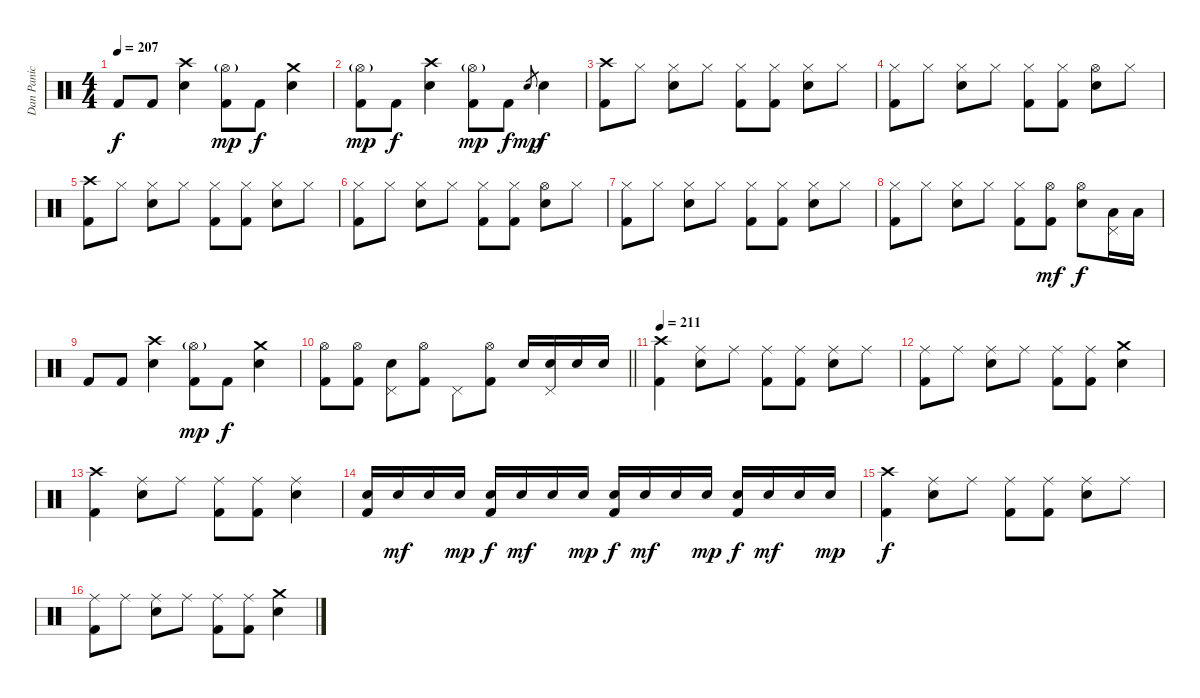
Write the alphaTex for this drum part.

\track ("Dan Panic" "Dan Panic") {instrument percussion}
\staff {score}
\articulation defaults
\ts (4 4)
\tempo 207
\clef neutral
\ks c "Kick (hit) 2".8{dy f} "Kick (hit) 2".8
("Crash high (hit)" "Electric Snare (hit)").4 ("Hi-Hat (open)"{g} "Kick (hit) 2").8{dy mp} "Kick (hit) 2".8{dy f} ("Crash medium (hit)" "Electric Snare (hit)").4 |
("Hi-Hat (open)"{g} "Kick (hit) 2").8{dy mp} "Kick (hit) 2".8{dy f} ("Crash high (hit)" "Electric Snare (hit)").4 ("Hi-Hat (open)"{g} "Kick (hit) 2").8{dy mp} "Kick (hit) 2".8{dy f} "Electric Snare (hit)".8{gr dy mp} "Electric Snare (hit)".4{dy f} |
("Crash high (hit)" "Kick (hit) 2").8 "Hi-Hat (closed)".8 ("Hi-Hat (closed)" "Electric Snare (hit)").8 "Hi-Hat (closed)".8 ("Hi-Hat (closed)" "Kick (hit) 2").8 ("Hi-Hat (closed)" "Kick (hit) 2").8 ("Hi-Hat (closed)" "Electric Snare (hit)").8 "Hi-Hat (closed)".8 |
("Hi-Hat (closed)" "Kick (hit) 2").8 "Hi-Hat (closed)".8 ("Hi-Hat (closed)" "Electric Snare (hit)").8 "Hi-Hat (closed)".8 ("Hi-Hat (closed)" "Kick (hit) 2").8 ("Hi-Hat (closed)" "Kick (hit) 2").8 ("Hi-Hat (open)" "Electric Snare (hit)").8 "Hi-Hat (closed)".8 |
("Crash high (hit)" "Kick (hit) 2").8 "Hi-Hat (closed)".8 ("Hi-Hat (closed)" "Electric Snare (hit)").8 "Hi-Hat (closed)".8 ("Hi-Hat (closed)" "Kick (hit) 2").8 ("Hi-Hat (closed)" "Kick (hit) 2").8 ("Hi-Hat (closed)" "Electric Snare (hit)").8 "Hi-Hat (closed)".8 |
("Hi-Hat (closed)" "Kick (hit) 2").8 "Hi-Hat (closed)".8 ("Hi-Hat (closed)" "Electric Snare (hit)").8 "Hi-Hat (closed)".8 ("Hi-Hat (closed)" "Kick (hit) 2").8 ("Hi-Hat (closed)" "Kick (hit) 2").8 ("Hi-Hat (open)" "Electric Snare (hit)").8 "Hi-Hat (closed)".8 |
("Hi-Hat (closed)" "Kick (hit) 2").8 "Hi-Hat (closed)".8 ("Hi-Hat (closed)" "Electric Snare (hit)").8 "Hi-Hat (closed)".8 ("Hi-Hat (closed)" "Kick (hit) 2").8 ("Hi-Hat (closed)" "Kick (hit) 2").8 ("Hi-Hat (closed)" "Electric Snare (hit)").8 "Hi-Hat (closed)".8 |
("Hi-Hat (closed)" "Kick (hit) 2").8 "Hi-Hat (closed)".8 ("Hi-Hat (closed)" "Electric Snare (hit)").8 "Hi-Hat (closed)".8 ("Hi-Hat (closed)" "Kick (hit) 2").8 ("Hi-Hat (open)" "Kick (hit) 2").8{dy mf} ("Hi-Hat (open)" "Electric Snare (hit)").8{dy f} ("Pedal Hi-Hat (hit)" "Low Tom (hit)").16 "Low Floor Tom (hit)".16 |
"Kick (hit) 2".8 "Kick (hit) 2".8 ("Crash high (hit)" "Electric Snare (hit)").4 ("Hi-Hat (open)"{g} "Kick (hit) 2").8{dy mp} "Kick (hit) 2".8{dy f} ("Crash medium (hit)" "Electric Snare (hit)").4 |
\barLineRight lightlight
("Hi-Hat (open)" "Kick (hit) 2").8 ("Hi-Hat (open)" "Kick (hit) 2").8 ("Pedal Hi-Hat (hit)" "Electric Snare (hit)").8 ("Hi-Hat (open)" "Kick (hit) 2").8 "Pedal Hi-Hat (hit)".8 ("Hi-Hat (open)" "Kick (hit) 2").8 "Electric Snare (hit)".16 ("Pedal Hi-Hat (hit)" "Electric Snare (hit)").16 "Electric Snare (hit)".16 "Electric Snare (hit)".16 |
\section ("" "")
\tempo 211
("Crash high (hit)" "Kick (hit) 2").4 ("Ride (middle)" "Electric Snare (hit)").8 "Ride (middle)".8 ("Ride (middle)" "Kick (hit) 2").8 ("Ride (middle)" "Kick (hit) 2").8 ("Ride (middle)" "Electric Snare (hit)").8 "Ride (middle)".8 |
("Ride (middle)" "Kick (hit) 2").8 "Ride (middle)".8 ("Ride (middle)" "Electric Snare (hit)").8 "Ride (middle)".8 ("Ride (middle)" "Kick (hit) 2").8 ("Ride (middle)" "Kick (hit) 2").8 ("Crash medium (hit)" "Electric Snare (hit)").4 |
("Crash high (hit)" "Kick (hit) 2").4 ("Ride (middle)" "Electric Snare (hit)").8 "Ride (middle)".8 ("Ride (middle)" "Kick (hit) 2").8 ("Ride (middle)" "Kick (hit) 2").8 ("Ride (middle)" "Electric Snare (hit)").4 |
("Electric Snare (hit)" "Kick (hit) 2").16 "Electric Snare (hit)".16{dy mf} "Electric Snare (hit)".16 "Electric Snare (hit)".16{dy mp} ("Electric Snare (hit)" "Kick (hit) 2").16{dy f} "Electric Snare (hit)".16{dy mf} "Electric Snare (hit)".16 "Electric Snare (hit)".16{dy mp} ("Electric Snare (hit)" "Kick (hit) 2").16{dy f} "Electric Snare (hit)".16{dy mf} "Electric Snare (hit)".16 "Electric Snare (hit)".16{dy mp} ("Electric Snare (hit)" "Kick (hit) 2").16{dy f} "Electric Snare (hit)".16{dy mf} "Electric Snare (hit)".16 "Electric Snare (hit)".16{dy mp} |
("Crash high (hit)" "Kick (hit) 2").4{dy f} ("Ride (middle)" "Electric Snare (hit)").8 "Ride (middle)".8 ("Ride (middle)" "Kick (hit) 2").8 ("Ride (middle)" "Kick (hit) 2").8 ("Ride (middle)" "Electric Snare (hit)").8 "Ride (middle)".8 |
("Ride (middle)" "Kick (hit) 2").8 "Ride (middle)".8 ("Ride (middle)" "Electric Snare (hit)").8 "Ride (middle)".8 ("Ride (middle)" "Kick (hit) 2").8 ("Ride (middle)" "Kick (hit) 2").8 ("Crash medium (hit)" "Electric Snare (hit)").4
